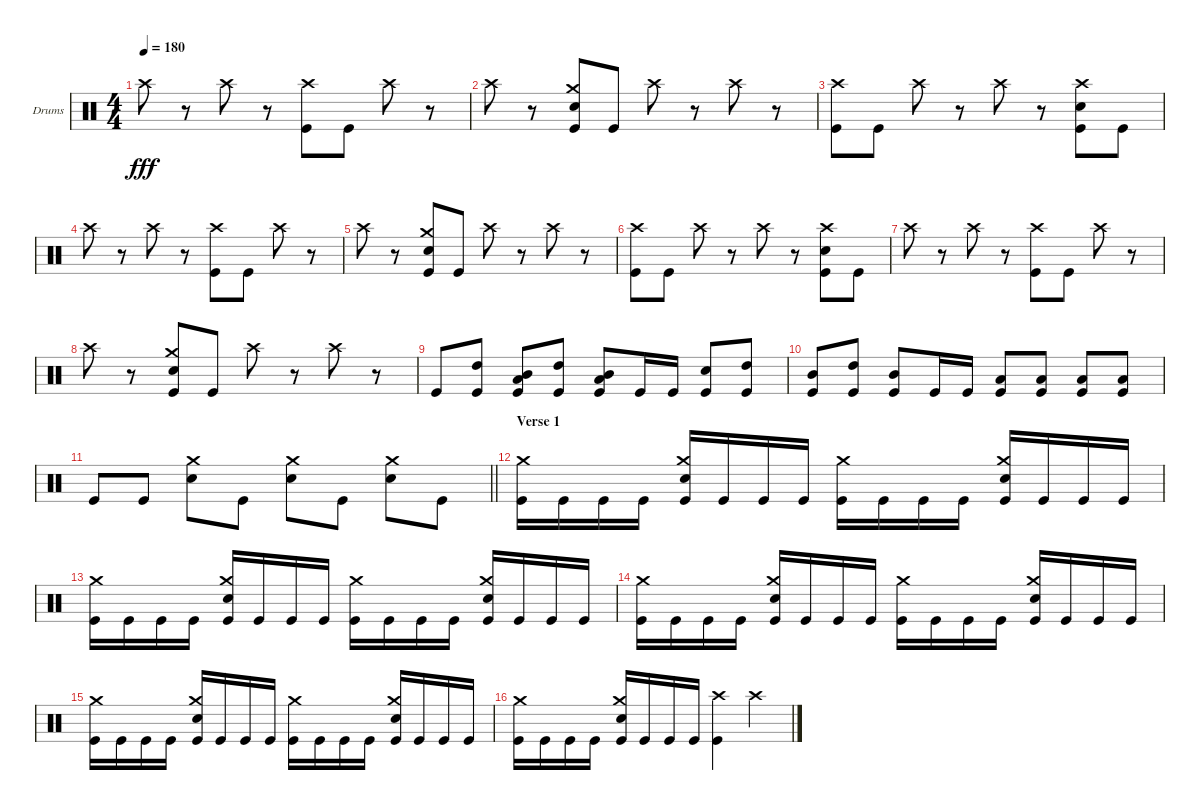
\bracketExtendMode groupsimilarinstruments
\firstSystemTrackNameOrientation horizontal
\otherSystemsTrackNameOrientation horizontal
\track ("Drumkit" "Drums") {instrument percussion}
\staff {score}
\articulation defaults
\ts (4 4)
\tempo 180
\clef neutral
\ks c "Crash high (hit)".8{dy fff}
r.8 "Crash high (hit)".8 r.8 ("Crash high (hit)" "Kick (hit)").8 "Kick (hit)".8 "Crash high (hit)".8 r.8 |
"Crash high (hit)".8 r.8 ("Crash medium (hit)" "Snare (hit) 2" "Kick (hit)").8 "Kick (hit)".8 "Crash high (hit)".8 r.8 "Crash high (hit)".8 r.8 |
("Crash high (hit)" "Kick (hit)").8 "Kick (hit)".8 "Crash high (hit)".8 r.8 "Crash high (hit)".8 r.8 ("Crash high (hit)" "Snare (hit) 2" "Kick (hit)").8 "Kick (hit)".8 |
"Crash high (hit)".8 r.8 "Crash high (hit)".8 r.8 ("Crash high (hit)" "Kick (hit)").8 "Kick (hit)".8 "Crash high (hit)".8 r.8 |
"Crash high (hit)".8 r.8 ("Crash medium (hit)" "Snare (hit) 2" "Kick (hit)").8 "Kick (hit)".8 "Crash high (hit)".8 r.8 "Crash high (hit)".8 r.8 |
("Crash high (hit)" "Kick (hit)").8 "Kick (hit)".8 "Crash high (hit)".8 r.8 "Crash high (hit)".8 r.8 ("Crash high (hit)" "Snare (hit) 2" "Kick (hit)").8 "Kick (hit)".8 |
"Crash high (hit)".8 r.8 "Crash high (hit)".8 r.8 ("Crash high (hit)" "Kick (hit)").8 "Kick (hit)".8 "Crash high (hit)".8 r.8 |
"Crash high (hit)".8 r.8 ("Crash medium (hit)" "Snare (hit) 2" "Kick (hit)").8 "Kick (hit)".8 "Crash high (hit)".8 r.8 "Crash high (hit)".8 r.8 |
"Kick (hit)".8 ("High Tom (hit)" "Kick (hit)").8 ("Low Tom (hit)" "Mid Tom (hit)" "Kick (hit)").8 ("High Tom (hit)" "Kick (hit)").8 ("Low Tom (hit)" "Mid Tom (hit)" "Kick (hit)").8 "Kick (hit)".16 "Kick (hit)".16 ("Snare (hit) 2" "Kick (hit)").8 ("High Tom (hit)" "Kick (hit)").8 |
("Mid Tom (hit)" "Kick (hit)").8 ("High Tom (hit)" "Kick (hit)").8 ("Mid Tom (hit)" "Kick (hit)").8 "Kick (hit)".16 "Kick (hit)".16 ("Low Tom (hit)" "Kick (hit)").8 ("Low Tom (hit)" "Kick (hit)").8 ("Low Tom (hit)" "Kick (hit)").8 ("Low Tom (hit)" "Kick (hit)").8 |
\barLineRight lightlight "Kick (hit)".8 "Kick (hit)".8
("Crash medium (hit)" "Snare (hit) 2").8 "Kick (hit)".8 ("Crash medium (hit)" "Snare (hit) 2").8 "Kick (hit)".8 ("Crash medium (hit)" "Snare (hit) 2").8 "Kick (hit)".8 |
\section ("" "Verse 1")
("Crash medium (hit)" "Kick (hit)").16 "Kick (hit)".16 "Kick (hit)".16 "Kick (hit)".16 ("Crash medium (hit)" "Snare (hit) 2" "Kick (hit)").16 "Kick (hit)".16 "Kick (hit)".16 "Kick (hit)".16 ("Crash medium (hit)" "Kick (hit)").16 "Kick (hit)".16 "Kick (hit)".16 "Kick (hit)".16 ("Crash medium (hit)" "Snare (hit) 2" "Kick (hit)").16 "Kick (hit)".16 "Kick (hit)".16 "Kick (hit)".16 |
("Crash medium (hit)" "Kick (hit)").16 "Kick (hit)".16 "Kick (hit)".16 "Kick (hit)".16 ("Crash medium (hit)" "Snare (hit) 2" "Kick (hit)").16 "Kick (hit)".16 "Kick (hit)".16 "Kick (hit)".16 ("Crash medium (hit)" "Kick (hit)").16 "Kick (hit)".16 "Kick (hit)".16 "Kick (hit)".16 ("Crash medium (hit)" "Snare (hit) 2" "Kick (hit)").16 "Kick (hit)".16 "Kick (hit)".16 "Kick (hit)".16 |
("Crash medium (hit)" "Kick (hit)").16 "Kick (hit)".16 "Kick (hit)".16 "Kick (hit)".16 ("Crash medium (hit)" "Snare (hit) 2" "Kick (hit)").16 "Kick (hit)".16 "Kick (hit)".16 "Kick (hit)".16 ("Crash medium (hit)" "Kick (hit)").16 "Kick (hit)".16 "Kick (hit)".16 "Kick (hit)".16 ("Crash medium (hit)" "Snare (hit) 2" "Kick (hit)").16 "Kick (hit)".16 "Kick (hit)".16 "Kick (hit)".16 |
("Crash medium (hit)" "Kick (hit)").16 "Kick (hit)".16 "Kick (hit)".16 "Kick (hit)".16 ("Crash medium (hit)" "Snare (hit) 2" "Kick (hit)").16 "Kick (hit)".16 "Kick (hit)".16 "Kick (hit)".16 ("Crash medium (hit)" "Kick (hit)").16 "Kick (hit)".16 "Kick (hit)".16 "Kick (hit)".16 ("Crash medium (hit)" "Snare (hit) 2" "Kick (hit)").16 "Kick (hit)".16 "Kick (hit)".16 "Kick (hit)".16 |
("Crash medium (hit)" "Kick (hit)").16 "Kick (hit)".16 "Kick (hit)".16 "Kick (hit)".16 ("Crash medium (hit)" "Snare (hit) 2" "Kick (hit)").16 "Kick (hit)".16 "Kick (hit)".16 "Kick (hit)".16 ("Crash high (hit)" "Kick (hit)").4 "Crash high (hit)".4
